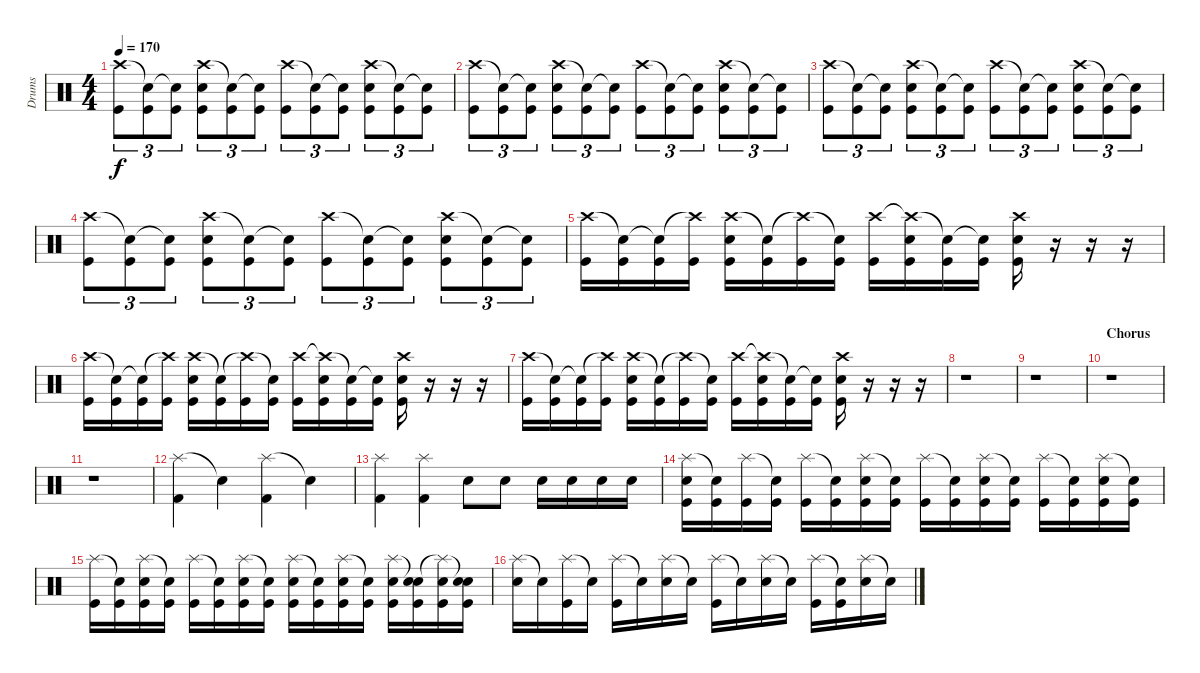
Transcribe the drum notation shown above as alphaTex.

\track ("Drums" "Drums") {instrument percussion}
\staff {score}
\articulation defaults
\ts (4 4)
\tempo 170
\clef neutral
\ks c
("Crash high (hit)" "Kick (hit)").8{tu (3 2) dy f} ("Snare (hit)"{t} "Kick (hit)").8{tu (3 2)} ("Snare (hit)"{t} "Kick (hit)").8{tu (3 2)} ("Crash high (hit)" "Electric Snare (hit)" "Kick (hit)").8{tu (3 2)} ("Snare (hit)"{t} "Kick (hit)").8{tu (3 2)} ("Snare (hit)"{t} "Kick (hit)").8{tu (3 2)} ("Crash high (hit)" "Kick (hit)").8{tu (3 2)} ("Snare (hit)"{t} "Kick (hit)").8{tu (3 2)} ("Snare (hit)"{t} "Kick (hit)").8{tu (3 2)} ("Crash high (hit)" "Electric Snare (hit)" "Kick (hit)").8{tu (3 2)} ("Snare (hit)"{t} "Kick (hit)").8{tu (3 2)} ("Snare (hit)"{t} "Kick (hit)").8{tu (3 2)} |
("Crash high (hit)" "Kick (hit)").8{tu (3 2)} ("Snare (hit)"{t} "Kick (hit)").8{tu (3 2)} ("Snare (hit)"{t} "Kick (hit)").8{tu (3 2)} ("Crash high (hit)" "Electric Snare (hit)" "Kick (hit)").8{tu (3 2)} ("Snare (hit)"{t} "Kick (hit)").8{tu (3 2)} ("Snare (hit)"{t} "Kick (hit)").8{tu (3 2)} ("Crash high (hit)" "Kick (hit)").8{tu (3 2)} ("Snare (hit)"{t} "Kick (hit)").8{tu (3 2)} ("Snare (hit)"{t} "Kick (hit)").8{tu (3 2)} ("Crash high (hit)" "Electric Snare (hit)" "Kick (hit)").8{tu (3 2)} ("Snare (hit)"{t} "Kick (hit)").8{tu (3 2)} ("Snare (hit)"{t} "Kick (hit)").8{tu (3 2)} |
("Crash high (hit)" "Kick (hit)").8{tu (3 2)} ("Snare (hit)"{t} "Kick (hit)").8{tu (3 2)} ("Snare (hit)"{t} "Kick (hit)").8{tu (3 2)} ("Crash high (hit)" "Electric Snare (hit)" "Kick (hit)").8{tu (3 2)} ("Snare (hit)"{t} "Kick (hit)").8{tu (3 2)} ("Snare (hit)"{t} "Kick (hit)").8{tu (3 2)} ("Crash high (hit)" "Kick (hit)").8{tu (3 2)} ("Snare (hit)"{t} "Kick (hit)").8{tu (3 2)} ("Snare (hit)"{t} "Kick (hit)").8{tu (3 2)} ("Crash high (hit)" "Electric Snare (hit)" "Kick (hit)").8{tu (3 2)} ("Snare (hit)"{t} "Kick (hit)").8{tu (3 2)} ("Snare (hit)"{t} "Kick (hit)").8{tu (3 2)} |
("Crash high (hit)" "Kick (hit)").8{tu (3 2)} ("Snare (hit)"{t} "Kick (hit)").8{tu (3 2)} ("Snare (hit)"{t} "Kick (hit)").8{tu (3 2)} ("Crash high (hit)" "Electric Snare (hit)" "Kick (hit)").8{tu (3 2)} ("Snare (hit)"{t} "Kick (hit)").8{tu (3 2)} ("Snare (hit)"{t} "Kick (hit)").8{tu (3 2)} ("Crash high (hit)" "Kick (hit)").8{tu (3 2)} ("Snare (hit)"{t} "Kick (hit)").8{tu (3 2)} ("Snare (hit)"{t} "Kick (hit)").8{tu (3 2)} ("Crash high (hit)" "Electric Snare (hit)" "Kick (hit)").8{tu (3 2)} ("Snare (hit)"{t} "Kick (hit)").8{tu (3 2)} ("Snare (hit)"{t} "Kick (hit)").8{tu (3 2)} |
("Crash high (hit)" "Kick (hit)").16 ("Snare (hit)"{t} "Kick (hit)").16 ("Snare (hit)"{t} "Kick (hit)").16 ("Crash high (hit)"{t} "Kick (hit)").16 ("Crash high (hit)" "Electric Snare (hit)" "Kick (hit)").16 ("Snare (hit)"{t} "Kick (hit)").16 ("Crash high (hit)"{t} "Kick (hit)").16 ("Snare (hit)"{t} "Kick (hit)").16 ("Crash high (hit)" "Kick (hit)").16 ("Crash high (hit)"{t} "Electric Snare (hit)" "Kick (hit)").16 ("Snare (hit)"{t} "Kick (hit)").16 ("Snare (hit)"{t} "Kick (hit)").16 ("Crash high (hit)" "Electric Snare (hit)" "Kick (hit)").16 r.16 r.16 r.16 |
("Crash high (hit)" "Kick (hit)").16 ("Snare (hit)"{t} "Kick (hit)").16 ("Snare (hit)"{t} "Kick (hit)").16 ("Crash high (hit)"{t} "Kick (hit)").16 ("Crash high (hit)" "Electric Snare (hit)" "Kick (hit)").16 ("Snare (hit)"{t} "Kick (hit)").16 ("Crash high (hit)"{t} "Kick (hit)").16 ("Snare (hit)"{t} "Kick (hit)").16 ("Crash high (hit)" "Kick (hit)").16 ("Crash high (hit)"{t} "Electric Snare (hit)" "Kick (hit)").16 ("Snare (hit)"{t} "Kick (hit)").16 ("Snare (hit)"{t} "Kick (hit)").16 ("Crash high (hit)" "Electric Snare (hit)" "Kick (hit)").16 r.16 r.16 r.16 |
("Crash high (hit)" "Kick (hit)").16 ("Snare (hit)"{t} "Kick (hit)").16 ("Snare (hit)"{t} "Kick (hit)").16 ("Crash high (hit)"{t} "Kick (hit)").16 ("Crash high (hit)" "Electric Snare (hit)" "Kick (hit)").16 ("Snare (hit)"{t} "Kick (hit)").16 ("Crash high (hit)"{t} "Kick (hit)").16 ("Snare (hit)"{t} "Kick (hit)").16 ("Crash high (hit)" "Kick (hit)").16 ("Crash high (hit)"{t} "Electric Snare (hit)" "Kick (hit)").16 ("Snare (hit)"{t} "Kick (hit)").16 ("Snare (hit)"{t} "Kick (hit)").16 ("Crash high (hit)" "Electric Snare (hit)" "Kick (hit)").16 r.16 r.16 r.16 |
r.1 |
r.1 |
\section ("" "Chorus")
r.1 |
r.1 |
("Splash (hit)" "Kick (hit) 2").4 "Snare (hit)"{t}.4 ("Splash (hit)" "Kick (hit) 2").4 "Snare (hit)"{t}.4 |
("Splash (hit)" "Kick (hit) 2").4 ("Splash (hit)" "Kick (hit) 2").4 "Electric Snare (hit)".8 "Electric Snare (hit)".8 "Electric Snare (hit)".16 "Electric Snare (hit)".16 "Electric Snare (hit)".16 "Electric Snare (hit)".16 |
("Splash (hit)" "Electric Snare (hit)" "Kick (hit)").16 ("Snare (hit)"{t} "Kick (hit)").16 ("Splash (hit)" "Kick (hit)").16 ("Snare (hit)"{t} "Kick (hit)").16 ("Splash (hit)" "Kick (hit)").16 ("Snare (hit)"{t} "Kick (hit)").16 ("Splash (hit)" "Electric Snare (hit)" "Kick (hit)").16 ("Snare (hit)"{t} "Kick (hit)").16 ("Splash (hit)" "Kick (hit)").16 ("Snare (hit)"{t} "Kick (hit)").16 ("Splash (hit)" "Electric Snare (hit)" "Kick (hit)").16 ("Snare (hit)"{t} "Kick (hit)").16 ("Splash (hit)" "Kick (hit)").16 ("Snare (hit)"{t} "Kick (hit)").16 ("Splash (hit)" "Electric Snare (hit)" "Kick (hit)").16 ("Snare (hit)"{t} "Kick (hit)").16 |
("Splash (hit)" "Kick (hit)").16 ("Snare (hit)"{t} "Kick (hit)").16 ("Splash (hit)" "Electric Snare (hit)" "Kick (hit)").16 ("Snare (hit)"{t} "Kick (hit)").16 ("Splash (hit)" "Kick (hit)").16 ("Snare (hit)"{t} "Kick (hit)").16 ("Splash (hit)" "Electric Snare (hit)" "Kick (hit)").16 ("Snare (hit)"{t} "Kick (hit)").16 ("Splash (hit)" "Electric Snare (hit)" "Kick (hit)").16 ("Snare (hit)"{t} "Kick (hit)").16 ("Splash (hit)" "Electric Snare (hit)" "Kick (hit)").16 ("Snare (hit)"{t} "Kick (hit)").16 ("Splash (hit)" "Electric Snare (hit)" "Kick (hit)").16 ("Snare (hit)"{t} "Electric Snare (hit)" "Kick (hit)").16 ("Splash (hit)"{t} "Electric Snare (hit)" "Kick (hit)").16 ("Snare (hit)"{t} "Electric Snare (hit)" "Kick (hit)").16 |
("Splash (hit)" "Electric Snare (hit)").16 "Snare (hit)"{t}.16 ("Splash (hit)" "Kick (hit)").16 "Snare (hit)"{t}.16 ("Splash (hit)" "Kick (hit)").16 "Snare (hit)"{t}.16 ("Splash (hit)" "Electric Snare (hit)").16 "Snare (hit)"{t}.16 ("Splash (hit)" "Kick (hit)").16 "Snare (hit)"{t}.16 ("Splash (hit)" "Electric Snare (hit)").16 "Snare (hit)"{t}.16 ("Splash (hit)" "Kick (hit)").16 ("Snare (hit)"{t} "Kick (hit)").16 ("Splash (hit)" "Electric Snare (hit)").16 "Snare (hit)"{t}.16
